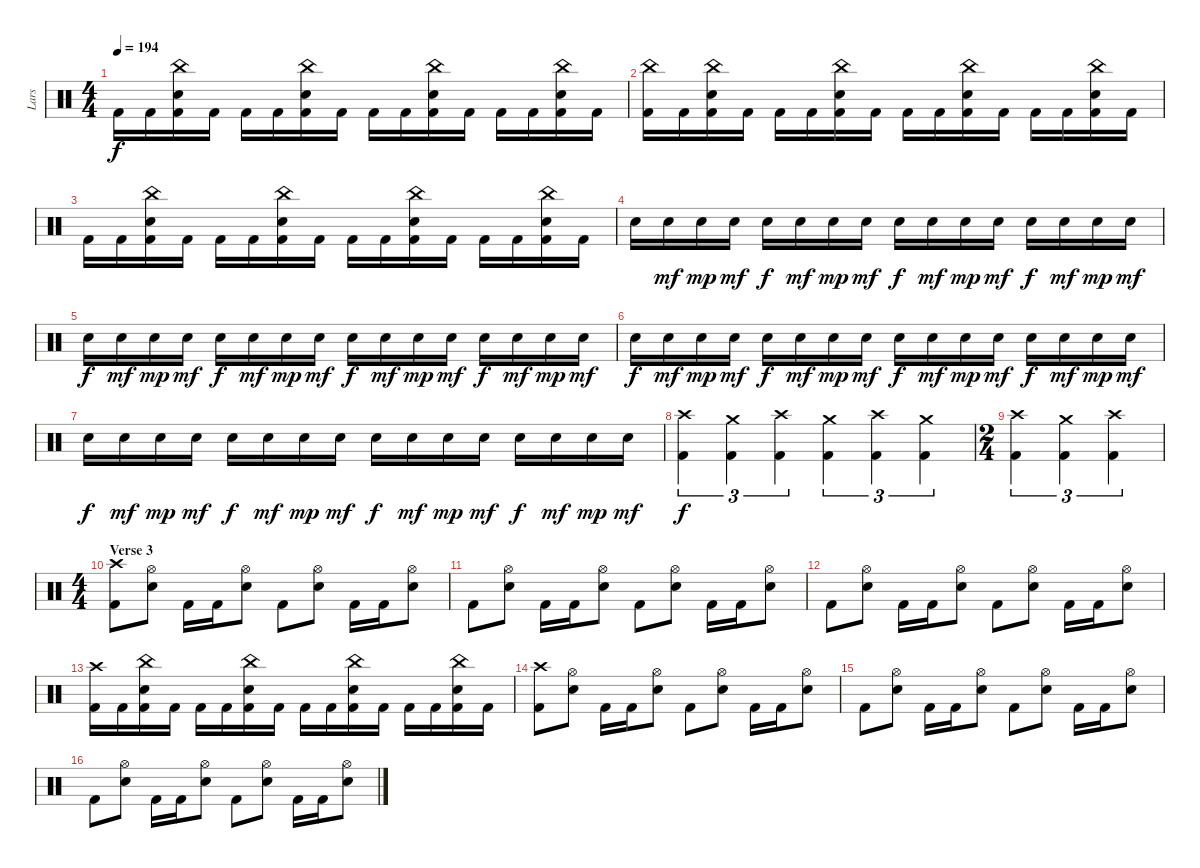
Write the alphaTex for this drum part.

\track ("Lars" "Lars") {instrument percussion}
\staff {score}
\articulation defaults
\ts (4 4)
\tempo 194
\clef neutral
\ks c "Kick (hit) 2".16{dy f} "Kick (hit) 2".16
("Kick (hit) 2" "Electric Snare (hit)" "China (hit)").16 "Kick (hit) 2".16 "Kick (hit) 2".16 "Kick (hit) 2".16 ("Kick (hit) 2" "Electric Snare (hit)" "China (hit)").16 "Kick (hit) 2".16 "Kick (hit) 2".16 "Kick (hit) 2".16 ("Kick (hit) 2" "Electric Snare (hit)" "China (hit)").16 "Kick (hit) 2".16 "Kick (hit) 2".16 "Kick (hit) 2".16 ("Kick (hit) 2" "Electric Snare (hit)" "China (hit)").16 "Kick (hit) 2".16 |
("Kick (hit) 2" "China (hit)").16 "Kick (hit) 2".16 ("Kick (hit) 2" "Electric Snare (hit)" "China (hit)").16 "Kick (hit) 2".16 "Kick (hit) 2".16 "Kick (hit) 2".16 ("Kick (hit) 2" "Electric Snare (hit)" "China (hit)").16 "Kick (hit) 2".16 "Kick (hit) 2".16 "Kick (hit) 2".16 ("Kick (hit) 2" "Electric Snare (hit)" "China (hit)").16 "Kick (hit) 2".16 "Kick (hit) 2".16 "Kick (hit) 2".16 ("Kick (hit) 2" "Electric Snare (hit)" "China (hit)").16 "Kick (hit) 2".16 |
"Kick (hit) 2".16 "Kick (hit) 2".16 ("Kick (hit) 2" "Electric Snare (hit)" "China (hit)").16 "Kick (hit) 2".16 "Kick (hit) 2".16 "Kick (hit) 2".16 ("Kick (hit) 2" "Electric Snare (hit)" "China (hit)").16 "Kick (hit) 2".16 "Kick (hit) 2".16 "Kick (hit) 2".16 ("Kick (hit) 2" "Electric Snare (hit)" "China (hit)").16 "Kick (hit) 2".16 "Kick (hit) 2".16 "Kick (hit) 2".16 ("Kick (hit) 2" "Electric Snare (hit)" "China (hit)").16 "Kick (hit) 2".16 |
"Electric Snare (hit)".16 "Electric Snare (hit)".16{dy mf} "Electric Snare (hit)".16{dy mp} "Electric Snare (hit)".16{dy mf} "Electric Snare (hit)".16{dy f} "Electric Snare (hit)".16{dy mf} "Electric Snare (hit)".16{dy mp} "Electric Snare (hit)".16{dy mf} "Electric Snare (hit)".16{dy f} "Electric Snare (hit)".16{dy mf} "Electric Snare (hit)".16{dy mp} "Electric Snare (hit)".16{dy mf} "Electric Snare (hit)".16{dy f} "Electric Snare (hit)".16{dy mf} "Electric Snare (hit)".16{dy mp} "Electric Snare (hit)".16{dy mf} |
"Electric Snare (hit)".16{dy f} "Electric Snare (hit)".16{dy mf} "Electric Snare (hit)".16{dy mp} "Electric Snare (hit)".16{dy mf} "Electric Snare (hit)".16{dy f} "Electric Snare (hit)".16{dy mf} "Electric Snare (hit)".16{dy mp} "Electric Snare (hit)".16{dy mf} "Electric Snare (hit)".16{dy f} "Electric Snare (hit)".16{dy mf} "Electric Snare (hit)".16{dy mp} "Electric Snare (hit)".16{dy mf} "Electric Snare (hit)".16{dy f} "Electric Snare (hit)".16{dy mf} "Electric Snare (hit)".16{dy mp} "Electric Snare (hit)".16{dy mf} |
"Electric Snare (hit)".16{dy f} "Electric Snare (hit)".16{dy mf} "Electric Snare (hit)".16{dy mp} "Electric Snare (hit)".16{dy mf} "Electric Snare (hit)".16{dy f} "Electric Snare (hit)".16{dy mf} "Electric Snare (hit)".16{dy mp} "Electric Snare (hit)".16{dy mf} "Electric Snare (hit)".16{dy f} "Electric Snare (hit)".16{dy mf} "Electric Snare (hit)".16{dy mp} "Electric Snare (hit)".16{dy mf} "Electric Snare (hit)".16{dy f} "Electric Snare (hit)".16{dy mf} "Electric Snare (hit)".16{dy mp} "Electric Snare (hit)".16{dy mf} |
"Electric Snare (hit)".16{dy f} "Electric Snare (hit)".16{dy mf} "Electric Snare (hit)".16{dy mp} "Electric Snare (hit)".16{dy mf} "Electric Snare (hit)".16{dy f} "Electric Snare (hit)".16{dy mf} "Electric Snare (hit)".16{dy mp} "Electric Snare (hit)".16{dy mf} "Electric Snare (hit)".16{dy f} "Electric Snare (hit)".16{dy mf} "Electric Snare (hit)".16{dy mp} "Electric Snare (hit)".16{dy mf} "Electric Snare (hit)".16{dy f} "Electric Snare (hit)".16{dy mf} "Electric Snare (hit)".16{dy mp} "Electric Snare (hit)".16{dy mf} |
("Kick (hit) 2" "Crash high (hit)").4{tu (3 2) dy f} ("Kick (hit) 2" "Crash medium (hit)").4{tu (3 2)} ("Kick (hit) 2" "Crash high (hit)").4{tu (3 2)} ("Kick (hit) 2" "Crash medium (hit)").4{tu (3 2)} ("Kick (hit) 2" "Crash high (hit)").4{tu (3 2)} ("Kick (hit) 2" "Crash medium (hit)").4{tu (3 2)} |
\ts (2 4)
("Kick (hit) 2" "Crash high (hit)").4{tu (3 2)} ("Kick (hit) 2" "Crash medium (hit)").4{tu (3 2)} ("Kick (hit) 2" "Crash high (hit)").4{tu (3 2)} |
\ts (4 4)
\section ("" "Verse 3")
("Kick (hit) 2" "Crash high (hit)").8 ("Electric Snare (hit)" "Hi-Hat (open)").8 "Kick (hit) 2".16 "Kick (hit) 2".16 ("Electric Snare (hit)" "Hi-Hat (open)").8 "Kick (hit) 2".8 ("Electric Snare (hit)" "Hi-Hat (open)").8 "Kick (hit) 2".16 "Kick (hit) 2".16 ("Electric Snare (hit)" "Hi-Hat (open)").8 |
"Kick (hit) 2".8 ("Electric Snare (hit)" "Hi-Hat (open)").8 "Kick (hit) 2".16 "Kick (hit) 2".16 ("Electric Snare (hit)" "Hi-Hat (open)").8 "Kick (hit) 2".8 ("Electric Snare (hit)" "Hi-Hat (open)").8 "Kick (hit) 2".16 "Kick (hit) 2".16 ("Electric Snare (hit)" "Hi-Hat (open)").8 |
"Kick (hit) 2".8 ("Electric Snare (hit)" "Hi-Hat (open)").8 "Kick (hit) 2".16 "Kick (hit) 2".16 ("Electric Snare (hit)" "Hi-Hat (open)").8 "Kick (hit) 2".8 ("Electric Snare (hit)" "Hi-Hat (open)").8 "Kick (hit) 2".16 "Kick (hit) 2".16 ("Electric Snare (hit)" "Hi-Hat (open)").8 |
("Kick (hit) 2" "Crash high (hit)").16 "Kick (hit) 2".16 ("Kick (hit) 2" "Electric Snare (hit)" "China (hit)").16 "Kick (hit) 2".16 "Kick (hit) 2".16 "Kick (hit) 2".16 ("Kick (hit) 2" "Electric Snare (hit)" "China (hit)").16 "Kick (hit) 2".16 "Kick (hit) 2".16 "Kick (hit) 2".16 ("Kick (hit) 2" "Electric Snare (hit)" "China (hit)").16 "Kick (hit) 2".16 "Kick (hit) 2".16 "Kick (hit) 2".16 ("Kick (hit) 2" "Electric Snare (hit)" "China (hit)").16 "Kick (hit) 2".16 |
("Kick (hit) 2" "Crash high (hit)").8 ("Electric Snare (hit)" "Hi-Hat (open)").8 "Kick (hit) 2".16 "Kick (hit) 2".16 ("Electric Snare (hit)" "Hi-Hat (open)").8 "Kick (hit) 2".8 ("Electric Snare (hit)" "Hi-Hat (open)").8 "Kick (hit) 2".16 "Kick (hit) 2".16 ("Electric Snare (hit)" "Hi-Hat (open)").8 |
"Kick (hit) 2".8 ("Electric Snare (hit)" "Hi-Hat (open)").8 "Kick (hit) 2".16 "Kick (hit) 2".16 ("Electric Snare (hit)" "Hi-Hat (open)").8 "Kick (hit) 2".8 ("Electric Snare (hit)" "Hi-Hat (open)").8 "Kick (hit) 2".16 "Kick (hit) 2".16 ("Electric Snare (hit)" "Hi-Hat (open)").8 |
"Kick (hit) 2".8 ("Electric Snare (hit)" "Hi-Hat (open)").8 "Kick (hit) 2".16 "Kick (hit) 2".16 ("Electric Snare (hit)" "Hi-Hat (open)").8 "Kick (hit) 2".8 ("Electric Snare (hit)" "Hi-Hat (open)").8 "Kick (hit) 2".16 "Kick (hit) 2".16 ("Electric Snare (hit)" "Hi-Hat (open)").8
